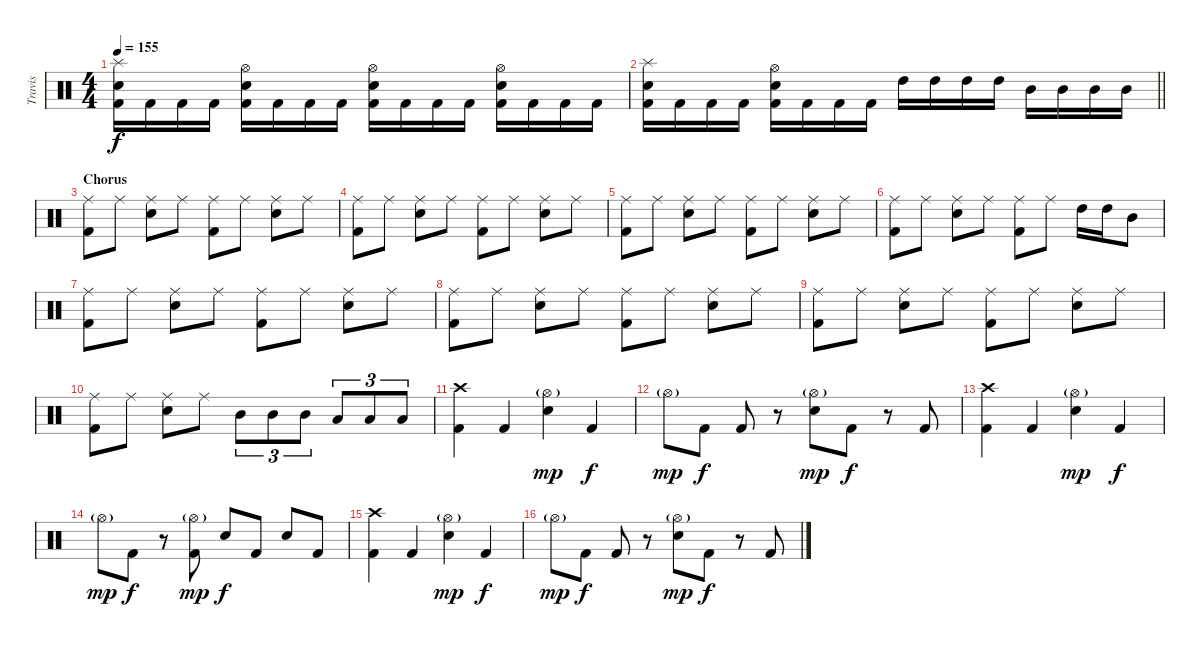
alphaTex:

\track ("Travis" "Travis") {instrument percussion}
\staff {score}
\articulation defaults
\ts (4 4)
\tempo 155
\clef neutral
\ks c
("Splash (hit)" "Snare (hit) 2" "Kick (hit) 2").16{dy f} "Kick (hit) 2".16 "Kick (hit) 2".16 "Kick (hit) 2".16 ("Hi-Hat (open)" "Snare (hit) 2" "Kick (hit) 2").16 "Kick (hit) 2".16 "Kick (hit) 2".16 "Kick (hit) 2".16 ("Hi-Hat (open)" "Snare (hit) 2" "Kick (hit) 2").16 "Kick (hit) 2".16 "Kick (hit) 2".16 "Kick (hit) 2".16 ("Hi-Hat (open)" "Snare (hit) 2" "Kick (hit) 2").16 "Kick (hit) 2".16 "Kick (hit) 2".16 "Kick (hit) 2".16 |
\barLineRight lightlight
("Splash (hit)" "Snare (hit) 2" "Kick (hit) 2").16 "Kick (hit) 2".16 "Kick (hit) 2".16 "Kick (hit) 2".16 ("Hi-Hat (open)" "Snare (hit) 2" "Kick (hit) 2").16 "Kick (hit) 2".16 "Kick (hit) 2".16 "Kick (hit) 2".16 "High Tom (hit)".16 "High Tom (hit)".16 "High Tom (hit)".16 "High Tom (hit)".16 "Mid Tom (hit)".16 "Mid Tom (hit)".16 "Mid Tom (hit)".16 "Mid Tom (hit)".16 |
\section ("" "Chorus")
("Ride (middle)" "Kick (hit) 2").8 "Ride (middle)".8 ("Ride (middle)" "Snare (hit) 2").8 "Ride (middle)".8 ("Ride (middle)" "Kick (hit) 2").8 "Ride (middle)".8 ("Ride (middle)" "Snare (hit) 2").8 "Ride (middle)".8 |
("Ride (middle)" "Kick (hit) 2").8 "Ride (middle)".8 ("Ride (middle)" "Snare (hit) 2").8 "Ride (middle)".8 ("Ride (middle)" "Kick (hit) 2").8 "Ride (middle)".8 ("Ride (middle)" "Snare (hit) 2").8 "Ride (middle)".8 |
("Ride (middle)" "Kick (hit) 2").8 "Ride (middle)".8 ("Ride (middle)" "Snare (hit) 2").8 "Ride (middle)".8 ("Ride (middle)" "Kick (hit) 2").8 "Ride (middle)".8 ("Ride (middle)" "Snare (hit) 2").8 "Ride (middle)".8 |
("Ride (middle)" "Kick (hit) 2").8 "Ride (middle)".8 ("Ride (middle)" "Snare (hit) 2").8 "Ride (middle)".8 ("Ride (middle)" "Kick (hit) 2").8 "Ride (middle)".8 "High Tom (hit)".16 "High Tom (hit)".16 "Mid Tom (hit)".8 |
("Ride (middle)" "Kick (hit) 2").8 "Ride (middle)".8 ("Ride (middle)" "Snare (hit) 2").8 "Ride (middle)".8 ("Ride (middle)" "Kick (hit) 2").8 "Ride (middle)".8 ("Ride (middle)" "Snare (hit) 2").8 "Ride (middle)".8 |
("Ride (middle)" "Kick (hit) 2").8 "Ride (middle)".8 ("Ride (middle)" "Snare (hit) 2").8 "Ride (middle)".8 ("Ride (middle)" "Kick (hit) 2").8 "Ride (middle)".8 ("Ride (middle)" "Snare (hit) 2").8 "Ride (middle)".8 |
("Ride (middle)" "Kick (hit) 2").8 "Ride (middle)".8 ("Ride (middle)" "Snare (hit) 2").8 "Ride (middle)".8 ("Ride (middle)" "Kick (hit) 2").8 "Ride (middle)".8 ("Ride (middle)" "Snare (hit) 2").8 "Ride (middle)".8 |
("Ride (middle)" "Kick (hit) 2").8 "Ride (middle)".8 ("Ride (middle)" "Snare (hit) 2").8 "Ride (middle)".8 "Mid Tom (hit)".8{tu (3 2)} "Mid Tom (hit)".8{tu (3 2)} "Mid Tom (hit)".8{tu (3 2)} "Low Tom (hit)".8{tu (3 2)} "Low Tom (hit)".8{tu (3 2)} "Low Tom (hit)".8{tu (3 2)} |
("Crash high (hit)" "Kick (hit) 2").4 "Kick (hit) 2".4 ("Hi-Hat (open)"{g} "Snare (hit) 2").4{dy mp} "Kick (hit) 2".4{dy f} |
"Hi-Hat (open)"{g}.8{dy mp} "Kick (hit) 2".8{dy f} "Kick (hit) 2".8 r.8 ("Hi-Hat (open)"{g} "Snare (hit) 2").8{dy mp} "Kick (hit) 2".8{dy f} r.8 "Kick (hit) 2".8 |
("Crash high (hit)" "Kick (hit) 2").4 "Kick (hit) 2".4 ("Hi-Hat (open)"{g} "Snare (hit) 2").4{dy mp} "Kick (hit) 2".4{dy f} |
"Hi-Hat (open)"{g}.8{dy mp} "Kick (hit) 2".8{dy f} r.8 ("Hi-Hat (open)"{g} "Kick (hit) 2").8{dy mp} "Snare (hit) 2".8{dy f} "Kick (hit) 2".8 "Snare (hit) 2".8 "Kick (hit) 2".8 |
("Crash high (hit)" "Kick (hit) 2").4 "Kick (hit) 2".4 ("Hi-Hat (open)"{g} "Snare (hit) 2").4{dy mp} "Kick (hit) 2".4{dy f} |
"Hi-Hat (open)"{g}.8{dy mp} "Kick (hit) 2".8{dy f} "Kick (hit) 2".8 r.8 ("Hi-Hat (open)"{g} "Snare (hit) 2").8{dy mp} "Kick (hit) 2".8{dy f} r.8 "Kick (hit) 2".8
